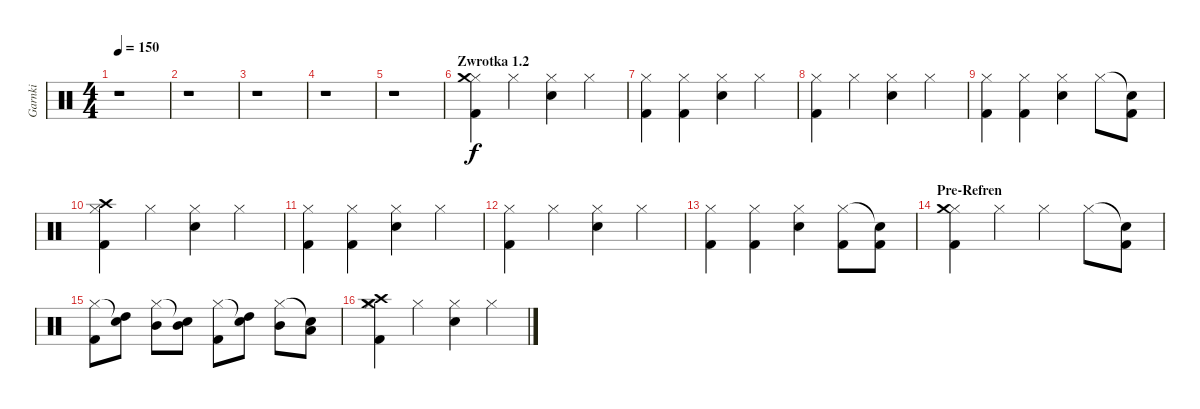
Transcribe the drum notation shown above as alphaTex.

\track ("Garnki" "Garnki") {instrument percussion}
\staff {score}
\articulation defaults
\ts (4 4)
\tempo 150
\clef neutral
\ks c
r.1{dy f} |
r.1 |
r.1 |
r.1 |
r.1 |
\section ("" "Zwrotka 1.2")
("Hi-Hat (closed)" "Crash medium (hit)" "Kick (hit) 2").4 "Hi-Hat (closed)".4 ("Hi-Hat (closed)" "Snare (hit) 2").4 "Hi-Hat (closed)".4 |
("Hi-Hat (closed)" "Kick (hit) 2").4 ("Hi-Hat (closed)" "Kick (hit) 2").4 ("Hi-Hat (closed)" "Snare (hit) 2").4 "Hi-Hat (closed)".4 |
("Hi-Hat (closed)" "Kick (hit) 2").4 "Hi-Hat (closed)".4 ("Hi-Hat (closed)" "Snare (hit) 2").4 "Hi-Hat (closed)".4 |
("Hi-Hat (closed)" "Kick (hit) 2").4 ("Hi-Hat (closed)" "Kick (hit) 2").4 ("Hi-Hat (closed)" "Snare (hit) 2").4 "Hi-Hat (closed)".8 ("Snare (hit)"{t} "Kick (hit) 2").8 |
("Hi-Hat (closed)" "Crash high (hit)" "Kick (hit) 2").4 "Hi-Hat (closed)".4 ("Hi-Hat (closed)" "Snare (hit) 2").4 "Hi-Hat (closed)".4 |
("Hi-Hat (closed)" "Kick (hit) 2").4 ("Hi-Hat (closed)" "Kick (hit) 2").4 ("Hi-Hat (closed)" "Snare (hit) 2").4 "Hi-Hat (closed)".4 |
("Hi-Hat (closed)" "Kick (hit) 2").4 "Hi-Hat (closed)".4 ("Hi-Hat (closed)" "Snare (hit) 2").4 "Hi-Hat (closed)".4 |
("Hi-Hat (closed)" "Kick (hit) 2").4 ("Hi-Hat (closed)" "Kick (hit) 2").4 ("Hi-Hat (closed)" "Snare (hit) 2").4 ("Hi-Hat (closed)" "Kick (hit) 2").8 ("Snare (hit)"{t} "Kick (hit) 2").8 |
\section ("" "Pre-Refren")
("Hi-Hat (closed)" "Crash medium (hit)" "Kick (hit) 2").4 "Hi-Hat (closed)".4 "Hi-Hat (closed)".4 "Hi-Hat (closed)".8 ("Snare (hit)"{t} "Kick (hit) 2").8 |
("Hi-Hat (closed)" "Kick (hit) 2").8 ("Snare (hit)"{t} "High Tom (hit)").8 ("Hi-Hat (closed)" "Mid Tom (hit)").8 ("Snare (hit)"{t} "Mid Tom (hit)").8 ("Hi-Hat (closed)" "Kick (hit) 2").8 ("Snare (hit)"{t} "High Tom (hit)").8 ("Hi-Hat (closed)" "Mid Tom (hit)").8 ("Snare (hit)"{t} "Low Tom (hit)").8 |
("Hi-Hat (closed)" "Crash high (hit)" "Kick (hit) 2" "Crash medium (hit)").4 "Hi-Hat (closed)".4 ("Hi-Hat (closed)" "Snare (hit) 2").4 "Hi-Hat (closed)".4
